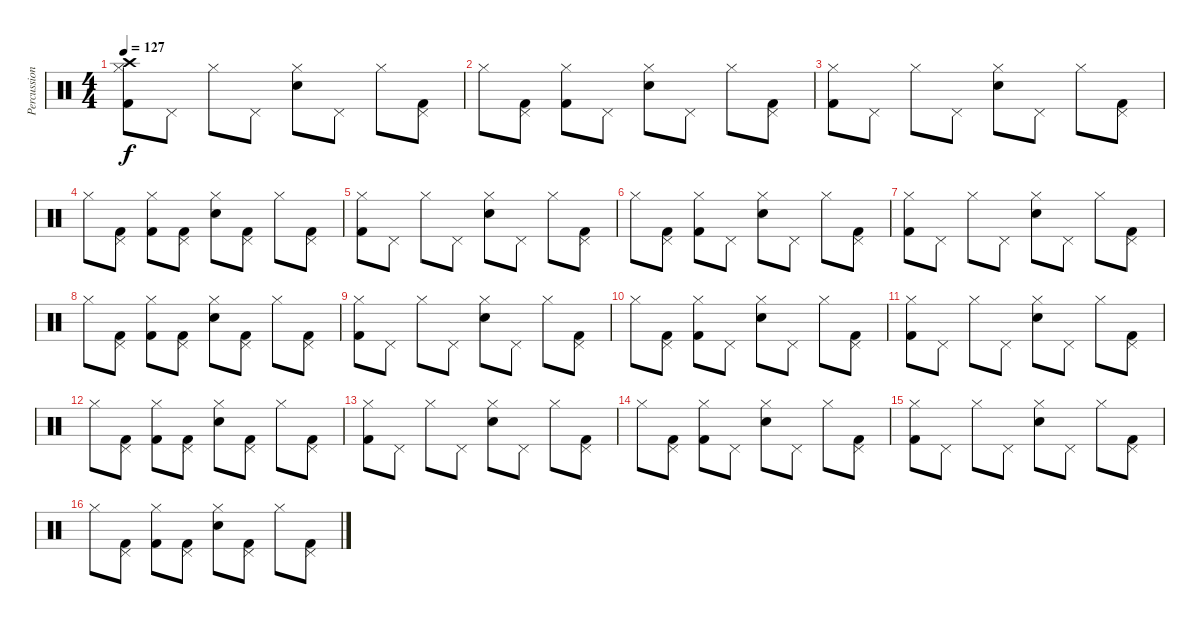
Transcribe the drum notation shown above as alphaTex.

\track ("Percussion" "Percussion") {instrument percussion}
\staff {score}
\articulation defaults
\ts (4 4)
\tempo 127
\clef neutral
\ks c
("Crash high (hit)" "Hi-Hat (closed)" "Kick (hit) 2").8{dy f} "Pedal Hi-Hat (hit)".8 "Hi-Hat (closed)".8 "Pedal Hi-Hat (hit)".8 ("Hi-Hat (closed)" "Snare (hit) 2").8 "Pedal Hi-Hat (hit)".8 "Hi-Hat (closed)".8 ("Pedal Hi-Hat (hit)" "Kick (hit) 2").8 |
"Hi-Hat (closed)".8 ("Pedal Hi-Hat (hit)" "Kick (hit) 2").8 ("Hi-Hat (closed)" "Kick (hit) 2").8 "Pedal Hi-Hat (hit)".8 ("Hi-Hat (closed)" "Snare (hit) 2").8 "Pedal Hi-Hat (hit)".8 "Hi-Hat (closed)".8 ("Pedal Hi-Hat (hit)" "Kick (hit) 2").8 |
("Hi-Hat (closed)" "Kick (hit) 2").8 "Pedal Hi-Hat (hit)".8 "Hi-Hat (closed)".8 "Pedal Hi-Hat (hit)".8 ("Hi-Hat (closed)" "Snare (hit) 2").8 "Pedal Hi-Hat (hit)".8 "Hi-Hat (closed)".8 ("Pedal Hi-Hat (hit)" "Kick (hit) 2").8 |
"Hi-Hat (closed)".8 ("Pedal Hi-Hat (hit)" "Kick (hit) 2").8 ("Hi-Hat (closed)" "Kick (hit) 2").8 ("Pedal Hi-Hat (hit)" "Kick (hit) 2").8 ("Hi-Hat (closed)" "Snare (hit) 2").8 ("Pedal Hi-Hat (hit)" "Kick (hit) 2").8 "Hi-Hat (closed)".8 ("Pedal Hi-Hat (hit)" "Kick (hit) 2").8 |
("Hi-Hat (closed)" "Kick (hit) 2").8 "Pedal Hi-Hat (hit)".8 "Hi-Hat (closed)".8 "Pedal Hi-Hat (hit)".8 ("Hi-Hat (closed)" "Snare (hit) 2").8 "Pedal Hi-Hat (hit)".8 "Hi-Hat (closed)".8 ("Pedal Hi-Hat (hit)" "Kick (hit) 2").8 |
"Hi-Hat (closed)".8 ("Pedal Hi-Hat (hit)" "Kick (hit) 2").8 ("Hi-Hat (closed)" "Kick (hit) 2").8 "Pedal Hi-Hat (hit)".8 ("Hi-Hat (closed)" "Snare (hit) 2").8 "Pedal Hi-Hat (hit)".8 "Hi-Hat (closed)".8 ("Pedal Hi-Hat (hit)" "Kick (hit) 2").8 |
("Hi-Hat (closed)" "Kick (hit) 2").8 "Pedal Hi-Hat (hit)".8 "Hi-Hat (closed)".8 "Pedal Hi-Hat (hit)".8 ("Hi-Hat (closed)" "Snare (hit) 2").8 "Pedal Hi-Hat (hit)".8 "Hi-Hat (closed)".8 ("Pedal Hi-Hat (hit)" "Kick (hit) 2").8 |
"Hi-Hat (closed)".8 ("Pedal Hi-Hat (hit)" "Kick (hit) 2").8 ("Hi-Hat (closed)" "Kick (hit) 2").8 ("Pedal Hi-Hat (hit)" "Kick (hit) 2").8 ("Hi-Hat (closed)" "Snare (hit) 2").8 ("Pedal Hi-Hat (hit)" "Kick (hit) 2").8 "Hi-Hat (closed)".8 ("Pedal Hi-Hat (hit)" "Kick (hit) 2").8 |
("Hi-Hat (closed)" "Kick (hit) 2").8 "Pedal Hi-Hat (hit)".8 "Hi-Hat (closed)".8 "Pedal Hi-Hat (hit)".8 ("Hi-Hat (closed)" "Snare (hit) 2").8 "Pedal Hi-Hat (hit)".8 "Hi-Hat (closed)".8 ("Pedal Hi-Hat (hit)" "Kick (hit) 2").8 |
"Hi-Hat (closed)".8 ("Pedal Hi-Hat (hit)" "Kick (hit) 2").8 ("Hi-Hat (closed)" "Kick (hit) 2").8 "Pedal Hi-Hat (hit)".8 ("Hi-Hat (closed)" "Snare (hit) 2").8 "Pedal Hi-Hat (hit)".8 "Hi-Hat (closed)".8 ("Pedal Hi-Hat (hit)" "Kick (hit) 2").8 |
("Hi-Hat (closed)" "Kick (hit) 2").8 "Pedal Hi-Hat (hit)".8 "Hi-Hat (closed)".8 "Pedal Hi-Hat (hit)".8 ("Hi-Hat (closed)" "Snare (hit) 2").8 "Pedal Hi-Hat (hit)".8 "Hi-Hat (closed)".8 ("Pedal Hi-Hat (hit)" "Kick (hit) 2").8 |
"Hi-Hat (closed)".8 ("Pedal Hi-Hat (hit)" "Kick (hit) 2").8 ("Hi-Hat (closed)" "Kick (hit) 2").8 ("Pedal Hi-Hat (hit)" "Kick (hit) 2").8 ("Hi-Hat (closed)" "Snare (hit) 2").8 ("Pedal Hi-Hat (hit)" "Kick (hit) 2").8 "Hi-Hat (closed)".8 ("Pedal Hi-Hat (hit)" "Kick (hit) 2").8 |
("Hi-Hat (closed)" "Kick (hit) 2").8 "Pedal Hi-Hat (hit)".8 "Hi-Hat (closed)".8 "Pedal Hi-Hat (hit)".8 ("Hi-Hat (closed)" "Snare (hit) 2").8 "Pedal Hi-Hat (hit)".8 "Hi-Hat (closed)".8 ("Pedal Hi-Hat (hit)" "Kick (hit) 2").8 |
"Hi-Hat (closed)".8 ("Pedal Hi-Hat (hit)" "Kick (hit) 2").8 ("Hi-Hat (closed)" "Kick (hit) 2").8 "Pedal Hi-Hat (hit)".8 ("Hi-Hat (closed)" "Snare (hit) 2").8 "Pedal Hi-Hat (hit)".8 "Hi-Hat (closed)".8 ("Pedal Hi-Hat (hit)" "Kick (hit) 2").8 |
("Hi-Hat (closed)" "Kick (hit) 2").8 "Pedal Hi-Hat (hit)".8 "Hi-Hat (closed)".8 "Pedal Hi-Hat (hit)".8 ("Hi-Hat (closed)" "Snare (hit) 2").8 "Pedal Hi-Hat (hit)".8 "Hi-Hat (closed)".8 ("Pedal Hi-Hat (hit)" "Kick (hit) 2").8 |
"Hi-Hat (closed)".8 ("Pedal Hi-Hat (hit)" "Kick (hit) 2").8 ("Hi-Hat (closed)" "Kick (hit) 2").8 ("Pedal Hi-Hat (hit)" "Kick (hit) 2").8 ("Hi-Hat (closed)" "Snare (hit) 2").8 ("Pedal Hi-Hat (hit)" "Kick (hit) 2").8 "Hi-Hat (closed)".8 ("Pedal Hi-Hat (hit)" "Kick (hit) 2").8
